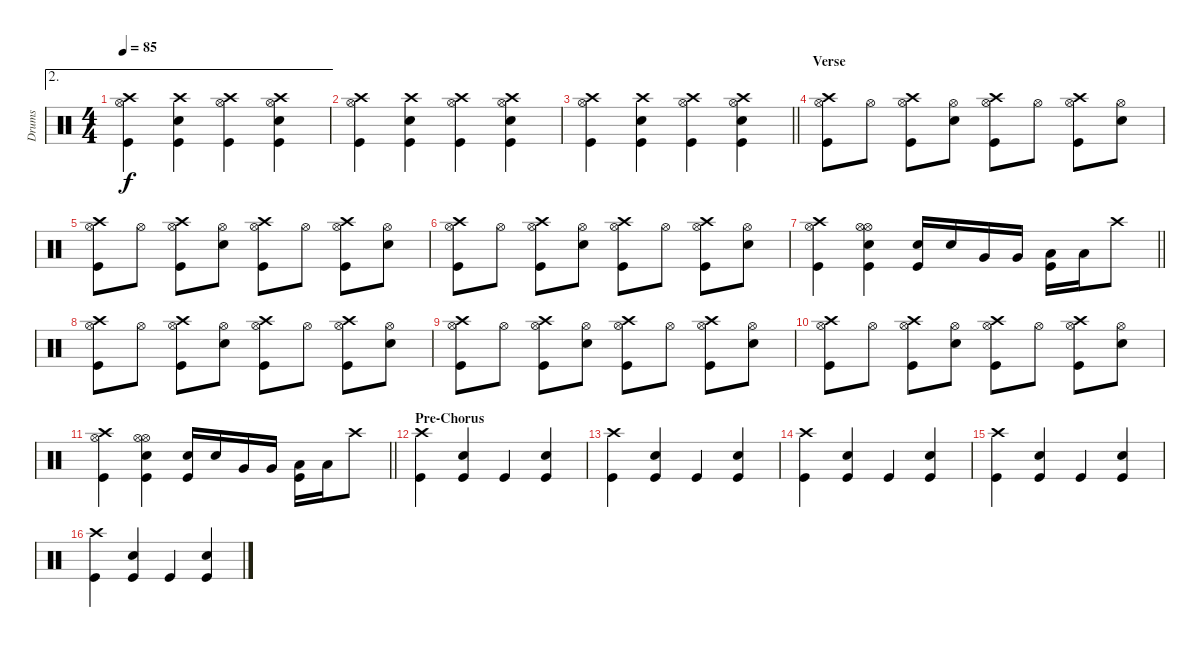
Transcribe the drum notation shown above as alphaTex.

\track ("Drums" "Drums") {instrument percussion}
\staff {score}
\articulation defaults
\ae 2
\ts (4 4)
\tempo 85
\clef neutral
\ks c
("Crash high (hit)" "Hi-Hat (open)" "Kick (hit)").4{dy f} ("Crash high (hit)" "Snare (hit) 2" "Kick (hit)").4 ("Crash high (hit)" "Hi-Hat (open)" "Kick (hit)").4 ("Crash high (hit)" "Hi-Hat (open)" "Snare (hit) 2" "Kick (hit)").4 |
("Crash high (hit)" "Hi-Hat (open)" "Kick (hit)").4 ("Crash high (hit)" "Snare (hit) 2" "Kick (hit)").4 ("Crash high (hit)" "Hi-Hat (open)" "Kick (hit)").4 ("Crash high (hit)" "Hi-Hat (open)" "Snare (hit) 2" "Kick (hit)").4 |
\barLineRight lightlight
("Crash high (hit)" "Hi-Hat (open)" "Kick (hit)").4 ("Crash high (hit)" "Snare (hit) 2" "Kick (hit)").4 ("Crash high (hit)" "Hi-Hat (open)" "Kick (hit)").4 ("Crash high (hit)" "Hi-Hat (open)" "Snare (hit) 2" "Kick (hit)").4 |
\section ("" "Verse")
("Crash high (hit)" "Hi-Hat (open)" "Kick (hit)").8 "Hi-Hat (open)".8 ("Crash high (hit)" "Hi-Hat (open)" "Kick (hit)").8 ("Hi-Hat (open)" "Snare (hit) 2").8 ("Crash high (hit)" "Hi-Hat (open)" "Kick (hit)").8 "Hi-Hat (open)".8 ("Crash high (hit)" "Hi-Hat (open)" "Kick (hit)").8 ("Hi-Hat (open)" "Snare (hit) 2").8 |
("Crash high (hit)" "Hi-Hat (open)" "Kick (hit)").8 "Hi-Hat (open)".8 ("Crash high (hit)" "Hi-Hat (open)" "Kick (hit)").8 ("Hi-Hat (open)" "Snare (hit) 2").8 ("Crash high (hit)" "Hi-Hat (open)" "Kick (hit)").8 "Hi-Hat (open)".8 ("Crash high (hit)" "Hi-Hat (open)" "Kick (hit)").8 ("Hi-Hat (open)" "Snare (hit) 2").8 |
("Crash high (hit)" "Hi-Hat (open)" "Kick (hit)").8 "Hi-Hat (open)".8 ("Crash high (hit)" "Hi-Hat (open)" "Kick (hit)").8 ("Hi-Hat (open)" "Snare (hit) 2").8 ("Crash high (hit)" "Hi-Hat (open)" "Kick (hit)").8 "Hi-Hat (open)".8 ("Crash high (hit)" "Hi-Hat (open)" "Kick (hit)").8 ("Hi-Hat (open)" "Snare (hit) 2").8 |
\barLineRight lightlight
("Crash high (hit)" "Hi-Hat (open)" "Kick (hit)").4 ("Hi-Hat (open)" "Hi-Hat (open)" "Snare (hit) 2" "Kick (hit)").4 ("Snare (hit) 2" "Kick (hit)").16 "Snare (hit) 2".16 "Very Low Tom (hit)".16 "Very Low Tom (hit)".16 ("Low Tom (hit)" "Kick (hit)").16 "Low Tom (hit)".16 "Crash high (hit)".8 |
("Crash high (hit)" "Hi-Hat (open)" "Kick (hit)").8 "Hi-Hat (open)".8 ("Crash high (hit)" "Hi-Hat (open)" "Kick (hit)").8 ("Hi-Hat (open)" "Snare (hit) 2").8 ("Crash high (hit)" "Hi-Hat (open)" "Kick (hit)").8 "Hi-Hat (open)".8 ("Crash high (hit)" "Hi-Hat (open)" "Kick (hit)").8 ("Hi-Hat (open)" "Snare (hit) 2").8 |
("Crash high (hit)" "Hi-Hat (open)" "Kick (hit)").8 "Hi-Hat (open)".8 ("Crash high (hit)" "Hi-Hat (open)" "Kick (hit)").8 ("Hi-Hat (open)" "Snare (hit) 2").8 ("Crash high (hit)" "Hi-Hat (open)" "Kick (hit)").8 "Hi-Hat (open)".8 ("Crash high (hit)" "Hi-Hat (open)" "Kick (hit)").8 ("Hi-Hat (open)" "Snare (hit) 2").8 |
("Crash high (hit)" "Hi-Hat (open)" "Kick (hit)").8 "Hi-Hat (open)".8 ("Crash high (hit)" "Hi-Hat (open)" "Kick (hit)").8 ("Hi-Hat (open)" "Snare (hit) 2").8 ("Crash high (hit)" "Hi-Hat (open)" "Kick (hit)").8 "Hi-Hat (open)".8 ("Crash high (hit)" "Hi-Hat (open)" "Kick (hit)").8 ("Hi-Hat (open)" "Snare (hit) 2").8 |
\barLineRight lightlight
("Crash high (hit)" "Hi-Hat (open)" "Kick (hit)").4 ("Hi-Hat (open)" "Hi-Hat (open)" "Snare (hit) 2" "Kick (hit)").4 ("Snare (hit) 2" "Kick (hit)").16 "Snare (hit) 2".16 "Very Low Tom (hit)".16 "Very Low Tom (hit)".16 ("Low Tom (hit)" "Kick (hit)").16 "Low Tom (hit)".16 "Crash high (hit)".8 |
\section ("" "Pre-Chorus")
("Crash high (hit)" "Kick (hit)").4 ("Snare (hit) 2" "Kick (hit)").4 "Kick (hit)".4 ("Snare (hit) 2" "Kick (hit)").4 |
("Crash high (hit)" "Kick (hit)").4 ("Snare (hit) 2" "Kick (hit)").4 "Kick (hit)".4 ("Snare (hit) 2" "Kick (hit)").4 |
("Crash high (hit)" "Kick (hit)").4 ("Snare (hit) 2" "Kick (hit)").4 "Kick (hit)".4 ("Snare (hit) 2" "Kick (hit)").4 |
("Crash high (hit)" "Kick (hit)").4 ("Snare (hit) 2" "Kick (hit)").4 "Kick (hit)".4 ("Snare (hit) 2" "Kick (hit)").4 |
("Crash high (hit)" "Kick (hit)").4 ("Snare (hit) 2" "Kick (hit)").4 "Kick (hit)".4 ("Snare (hit) 2" "Kick (hit)").4
